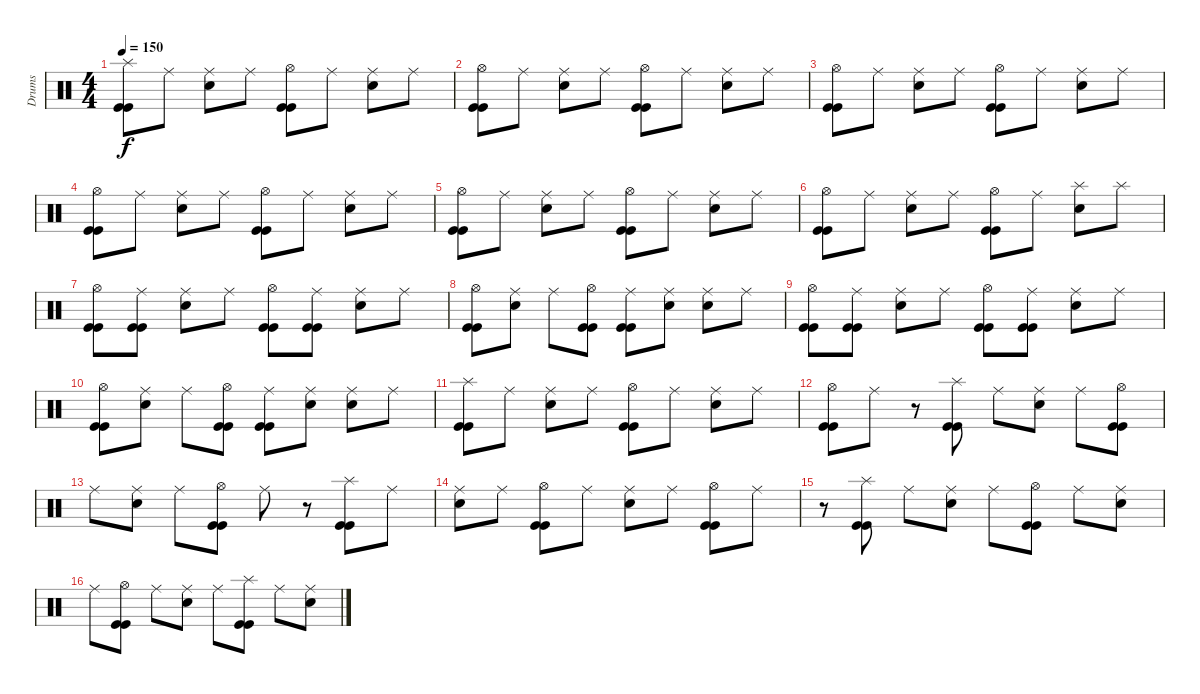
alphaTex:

\track ("Drums" "Drums") {instrument percussion}
\staff {score}
\articulation defaults
\ts (4 4)
\tempo 150
\clef neutral
\ks c
("Splash (hit)" "Kick (hit)" "Kick (hit)").8{dy f} "Ride (middle)".8 ("Ride (middle)" "Snare (hit) 2").8 "Ride (middle)".8 ("Hi-Hat (open)" "Kick (hit)" "Kick (hit)").8 "Ride (middle)".8 ("Ride (middle)" "Snare (hit) 2").8 "Ride (middle)".8 |
("Hi-Hat (open)" "Kick (hit)" "Kick (hit)").8 "Ride (middle)".8 ("Ride (middle)" "Snare (hit) 2").8 "Ride (middle)".8 ("Hi-Hat (open)" "Kick (hit)" "Kick (hit)").8 "Ride (middle)".8 ("Ride (middle)" "Snare (hit) 2").8 "Ride (middle)".8 |
("Hi-Hat (open)" "Kick (hit)" "Kick (hit)").8 "Ride (middle)".8 ("Ride (middle)" "Snare (hit) 2").8 "Ride (middle)".8 ("Hi-Hat (open)" "Kick (hit)" "Kick (hit)").8 "Ride (middle)".8 ("Ride (middle)" "Snare (hit) 2").8 "Ride (middle)".8 |
("Hi-Hat (open)" "Kick (hit)" "Kick (hit)").8 "Ride (middle)".8 ("Ride (middle)" "Snare (hit) 2").8 "Ride (middle)".8 ("Hi-Hat (open)" "Kick (hit)" "Kick (hit)").8 "Ride (middle)".8 ("Ride (middle)" "Snare (hit) 2").8 "Ride (middle)".8 |
("Hi-Hat (open)" "Kick (hit)" "Kick (hit)").8 "Ride (middle)".8 ("Ride (middle)" "Snare (hit) 2").8 "Ride (middle)".8 ("Hi-Hat (open)" "Kick (hit)" "Kick (hit)").8 "Ride (middle)".8 ("Ride (middle)" "Snare (hit) 2").8 "Ride (middle)".8 |
("Hi-Hat (open)" "Kick (hit)" "Kick (hit)").8 "Ride (middle)".8 ("Ride (middle)" "Snare (hit) 2").8 "Ride (middle)".8 ("Hi-Hat (open)" "Kick (hit)" "Kick (hit)").8 "Ride (middle)".8 ("Splash (hit)" "Snare (hit) 2").8 "Splash (hit)".8 |
("Hi-Hat (open)" "Kick (hit)" "Kick (hit)").8 ("Ride (middle)" "Kick (hit)" "Kick (hit)").8 ("Ride (middle)" "Snare (hit) 2").8 "Ride (middle)".8 ("Hi-Hat (open)" "Kick (hit)" "Kick (hit)").8 ("Ride (middle)" "Kick (hit)" "Kick (hit)").8 ("Ride (middle)" "Snare (hit) 2").8 "Ride (middle)".8 |
("Hi-Hat (open)" "Kick (hit)" "Kick (hit)").8 ("Ride (middle)" "Snare (hit) 2").8 "Ride (middle)".8 ("Hi-Hat (open)" "Kick (hit)" "Kick (hit)").8 ("Ride (middle)" "Kick (hit)" "Kick (hit)").8 ("Ride (middle)" "Snare (hit) 2").8 ("Ride (middle)" "Snare (hit) 2").8 "Ride (middle)".8 |
("Hi-Hat (open)" "Kick (hit)" "Kick (hit)").8 ("Ride (middle)" "Kick (hit)" "Kick (hit)").8 ("Ride (middle)" "Snare (hit) 2").8 "Ride (middle)".8 ("Hi-Hat (open)" "Kick (hit)" "Kick (hit)").8 ("Ride (middle)" "Kick (hit)" "Kick (hit)").8 ("Ride (middle)" "Snare (hit) 2").8 "Ride (middle)".8 |
("Hi-Hat (open)" "Kick (hit)" "Kick (hit)").8 ("Ride (middle)" "Snare (hit) 2").8 "Ride (middle)".8 ("Hi-Hat (open)" "Kick (hit)" "Kick (hit)").8 ("Ride (middle)" "Kick (hit)" "Kick (hit)").8 ("Ride (middle)" "Snare (hit) 2").8 ("Ride (middle)" "Snare (hit) 2").8 "Ride (middle)".8 |
("Splash (hit)" "Kick (hit)" "Kick (hit)").8 "Ride (middle)".8 ("Ride (middle)" "Snare (hit) 2").8 "Ride (middle)".8 ("Hi-Hat (open)" "Kick (hit)" "Kick (hit)").8 "Ride (middle)".8 ("Ride (middle)" "Snare (hit) 2").8 "Ride (middle)".8 |
("Hi-Hat (open)" "Kick (hit)" "Kick (hit)").8 "Ride (middle)".8 r.8 ("Splash (hit)" "Kick (hit)" "Kick (hit)").8 "Ride (middle)".8 ("Ride (middle)" "Snare (hit) 2").8 "Ride (middle)".8 ("Hi-Hat (open)" "Kick (hit)" "Kick (hit)").8 |
"Ride (middle)".8 ("Ride (middle)" "Snare (hit) 2").8 "Ride (middle)".8 ("Hi-Hat (open)" "Kick (hit)" "Kick (hit)").8 "Ride (middle)".8 r.8 ("Splash (hit)" "Kick (hit)" "Kick (hit)").8 "Ride (middle)".8 |
("Ride (middle)" "Snare (hit) 2").8 "Ride (middle)".8 ("Hi-Hat (open)" "Kick (hit)" "Kick (hit)").8 "Ride (middle)".8 ("Ride (middle)" "Snare (hit) 2").8 "Ride (middle)".8 ("Hi-Hat (open)" "Kick (hit)" "Kick (hit)").8 "Ride (middle)".8 |
r.8 ("Splash (hit)" "Kick (hit)" "Kick (hit)").8 "Ride (middle)".8 ("Ride (middle)" "Snare (hit) 2").8 "Ride (middle)".8 ("Hi-Hat (open)" "Kick (hit)" "Kick (hit)").8 "Ride (middle)".8 ("Ride (middle)" "Snare (hit) 2").8 |
"Ride (middle)".8 ("Hi-Hat (open)" "Kick (hit)" "Kick (hit)").8 "Ride (middle)".8 ("Ride (middle)" "Snare (hit) 2").8 "Ride (middle)".8 ("Splash (hit)" "Kick (hit)" "Kick (hit)").8 "Ride (middle)".8 ("Ride (middle)" "Snare (hit) 2").8
